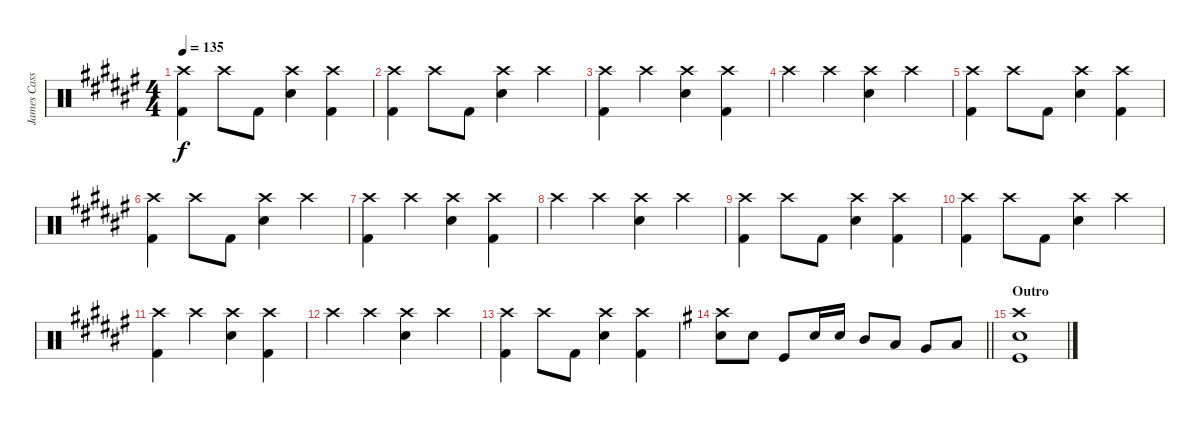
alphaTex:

\track ("James Cassells" "James Cass") {instrument percussion}
\staff {score}
\articulation defaults
\ts (4 4)
\tempo 135
\clef neutral
\ks d#minor
("Crash high (hit)" "Kick (hit) 2").4{dy f} "Crash high (hit)".8 "Kick (hit) 2".8 ("Crash high (hit)" "Electric Snare (hit)").4 ("Crash high (hit)" "Kick (hit) 2").4 |
("Crash high (hit)" "Kick (hit) 2").4 "Crash high (hit)".8 "Kick (hit) 2".8 ("Crash high (hit)" "Electric Snare (hit)").4 "Crash high (hit)".4 |
("Crash high (hit)" "Kick (hit) 2").4 "Crash high (hit)".4 ("Crash high (hit)" "Electric Snare (hit)").4 ("Crash high (hit)" "Kick (hit) 2").4 |
"Crash high (hit)".4 "Crash high (hit)".4 ("Crash high (hit)" "Electric Snare (hit)").4 "Crash high (hit)".4 |
("Crash high (hit)" "Kick (hit) 2").4 "Crash high (hit)".8 "Kick (hit) 2".8 ("Crash high (hit)" "Electric Snare (hit)").4 ("Crash high (hit)" "Kick (hit) 2").4 |
("Crash high (hit)" "Kick (hit) 2").4 "Crash high (hit)".8 "Kick (hit) 2".8 ("Crash high (hit)" "Electric Snare (hit)").4 "Crash high (hit)".4 |
("Crash high (hit)" "Kick (hit) 2").4 "Crash high (hit)".4 ("Crash high (hit)" "Electric Snare (hit)").4 ("Crash high (hit)" "Kick (hit) 2").4 |
"Crash high (hit)".4 "Crash high (hit)".4 ("Crash high (hit)" "Electric Snare (hit)").4 "Crash high (hit)".4 |
("Crash high (hit)" "Kick (hit) 2").4 "Crash high (hit)".8 "Kick (hit) 2".8 ("Crash high (hit)" "Electric Snare (hit)").4 ("Crash high (hit)" "Kick (hit) 2").4 |
("Crash high (hit)" "Kick (hit) 2").4 "Crash high (hit)".8 "Kick (hit) 2".8 ("Crash high (hit)" "Electric Snare (hit)").4 "Crash high (hit)".4 |
("Crash high (hit)" "Kick (hit) 2").4 "Crash high (hit)".4 ("Crash high (hit)" "Electric Snare (hit)").4 ("Crash high (hit)" "Kick (hit) 2").4 |
"Crash high (hit)".4 "Crash high (hit)".4 ("Crash high (hit)" "Electric Snare (hit)").4 "Crash high (hit)".4 |
("Crash high (hit)" "Kick (hit) 2").4 "Crash high (hit)".8 "Kick (hit) 2".8 ("Crash high (hit)" "Electric Snare (hit)").4 ("Crash high (hit)" "Kick (hit) 2").4 |
\barLineRight lightlight
\ks eminor
("Crash high (hit)" "Electric Snare (hit)").8 "Electric Snare (hit)".8 "Kick (hit)".8 "Electric Snare (hit)".16 "Electric Snare (hit)".16 "Mid Tom (hit)".8 "Low Tom (hit)".8 "Very Low Tom (hit)".8 "Low Floor Tom (hit)".8 |
\section ("" "Outro")
("Crash high (hit)" "Electric Snare (hit)" "Kick (hit)").1
